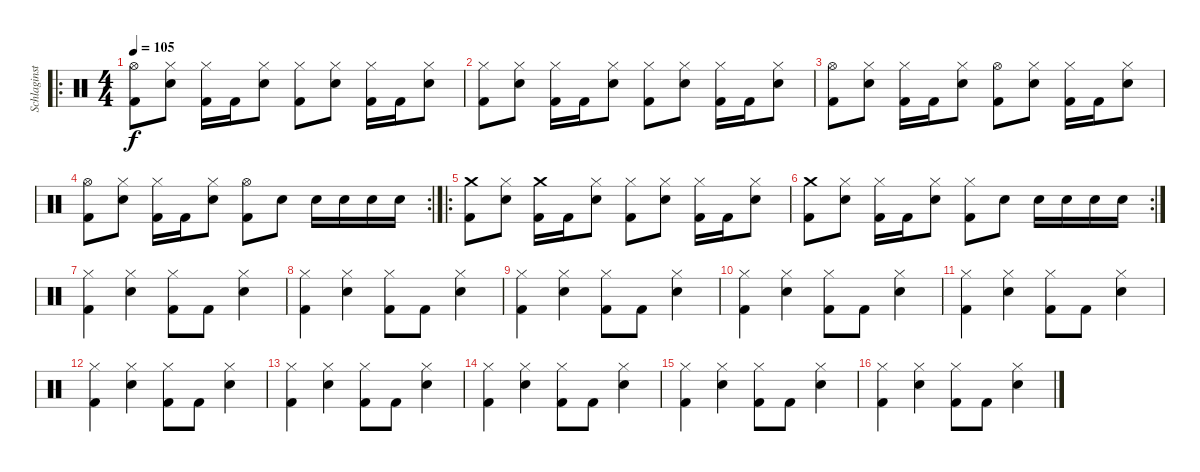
\track ("Schlaginstrumente - Auswahl" "Schlaginst") {instrument percussion}
\staff {score}
\articulation defaults
\ro
\ts (4 4)
\tempo 105
\clef neutral
\ks c
("Hi-Hat (open)" "Kick (hit) 2").8{dy f} ("Hi-Hat (closed)" "Snare (hit) 2").8 ("Hi-Hat (closed)" "Kick (hit) 2").16 "Kick (hit) 2".16 ("Hi-Hat (closed)" "Snare (hit) 2").8 ("Hi-Hat (closed)" "Kick (hit) 2").8 ("Hi-Hat (closed)" "Snare (hit) 2").8 ("Hi-Hat (closed)" "Kick (hit) 2").16 "Kick (hit) 2".16 ("Hi-Hat (closed)" "Snare (hit) 2").8 |
("Hi-Hat (closed)" "Kick (hit) 2").8 ("Hi-Hat (closed)" "Snare (hit) 2").8 ("Hi-Hat (closed)" "Kick (hit) 2").16 "Kick (hit) 2".16 ("Hi-Hat (closed)" "Snare (hit) 2").8 ("Hi-Hat (closed)" "Kick (hit) 2").8 ("Hi-Hat (closed)" "Snare (hit) 2").8 ("Hi-Hat (closed)" "Kick (hit) 2").16 "Kick (hit) 2".16 ("Hi-Hat (closed)" "Snare (hit) 2").8 |
("Hi-Hat (open)" "Kick (hit) 2").8 ("Hi-Hat (closed)" "Snare (hit) 2").8 ("Hi-Hat (closed)" "Kick (hit) 2").16 "Kick (hit) 2".16 ("Hi-Hat (closed)" "Snare (hit) 2").8 ("Hi-Hat (open)" "Kick (hit) 2").8 ("Hi-Hat (closed)" "Snare (hit) 2").8 ("Hi-Hat (closed)" "Kick (hit) 2").16 "Kick (hit) 2".16 ("Hi-Hat (closed)" "Snare (hit) 2").8 |
\rc 2
("Hi-Hat (open)" "Kick (hit) 2").8 ("Hi-Hat (closed)" "Snare (hit) 2").8 ("Hi-Hat (closed)" "Kick (hit) 2").16 "Kick (hit) 2".16 ("Hi-Hat (closed)" "Snare (hit) 2").8 ("Hi-Hat (open)" "Kick (hit) 2").8 "Snare (hit) 2".8 "Snare (hit) 2".16 "Snare (hit) 2".16 "Snare (hit) 2".16 "Snare (hit) 2".16 |
\ro
("Crash medium (hit)" "Kick (hit) 2").8 ("Hi-Hat (closed)" "Snare (hit) 2").8 ("Crash medium (hit)" "Kick (hit) 2").16 "Kick (hit) 2".16 ("Hi-Hat (closed)" "Snare (hit) 2").8 ("Hi-Hat (closed)" "Kick (hit) 2").8 ("Hi-Hat (closed)" "Snare (hit) 2").8 ("Hi-Hat (closed)" "Kick (hit) 2").16 "Kick (hit) 2".16 ("Hi-Hat (closed)" "Snare (hit) 2").8 |
\rc 2
("Crash medium (hit)" "Kick (hit) 2").8 ("Hi-Hat (closed)" "Snare (hit) 2").8 ("Hi-Hat (closed)" "Kick (hit) 2").16 "Kick (hit) 2".16 ("Hi-Hat (closed)" "Snare (hit) 2").8 ("Hi-Hat (closed)" "Kick (hit) 2").8 "Snare (hit) 2".8 "Snare (hit) 2".16 "Snare (hit) 2".16 "Snare (hit) 2".16 "Snare (hit) 2".16 |
("Hi-Hat (closed)" "Kick (hit) 2").4 ("Hi-Hat (closed)" "Snare (hit) 2").4 ("Hi-Hat (closed)" "Kick (hit) 2").8 "Kick (hit) 2".8 ("Hi-Hat (closed)" "Snare (hit) 2").4 |
("Hi-Hat (closed)" "Kick (hit) 2").4 ("Hi-Hat (closed)" "Snare (hit) 2").4 ("Hi-Hat (closed)" "Kick (hit) 2").8 "Kick (hit) 2".8 ("Hi-Hat (closed)" "Snare (hit) 2").4 |
("Hi-Hat (closed)" "Kick (hit) 2").4 ("Hi-Hat (closed)" "Snare (hit) 2").4 ("Hi-Hat (closed)" "Kick (hit) 2").8 "Kick (hit) 2".8 ("Hi-Hat (closed)" "Snare (hit) 2").4 |
("Hi-Hat (closed)" "Kick (hit) 2").4 ("Hi-Hat (closed)" "Snare (hit) 2").4 ("Hi-Hat (closed)" "Kick (hit) 2").8 "Kick (hit) 2".8 ("Hi-Hat (closed)" "Snare (hit) 2").4 |
("Hi-Hat (closed)" "Kick (hit) 2").4 ("Hi-Hat (closed)" "Snare (hit) 2").4 ("Hi-Hat (closed)" "Kick (hit) 2").8 "Kick (hit) 2".8 ("Hi-Hat (closed)" "Snare (hit) 2").4 |
("Hi-Hat (closed)" "Kick (hit) 2").4 ("Hi-Hat (closed)" "Snare (hit) 2").4 ("Hi-Hat (closed)" "Kick (hit) 2").8 "Kick (hit) 2".8 ("Hi-Hat (closed)" "Snare (hit) 2").4 |
("Hi-Hat (closed)" "Kick (hit) 2").4 ("Hi-Hat (closed)" "Snare (hit) 2").4 ("Hi-Hat (closed)" "Kick (hit) 2").8 "Kick (hit) 2".8 ("Hi-Hat (closed)" "Snare (hit) 2").4 |
("Hi-Hat (closed)" "Kick (hit) 2").4 ("Hi-Hat (closed)" "Snare (hit) 2").4 ("Hi-Hat (closed)" "Kick (hit) 2").8 "Kick (hit) 2".8 ("Hi-Hat (closed)" "Snare (hit) 2").4 |
("Hi-Hat (closed)" "Kick (hit) 2").4 ("Hi-Hat (closed)" "Snare (hit) 2").4 ("Hi-Hat (closed)" "Kick (hit) 2").8 "Kick (hit) 2".8 ("Hi-Hat (closed)" "Snare (hit) 2").4 |
("Hi-Hat (closed)" "Kick (hit) 2").4 ("Hi-Hat (closed)" "Snare (hit) 2").4 ("Hi-Hat (closed)" "Kick (hit) 2").8 "Kick (hit) 2".8 ("Hi-Hat (closed)" "Snare (hit) 2").4
